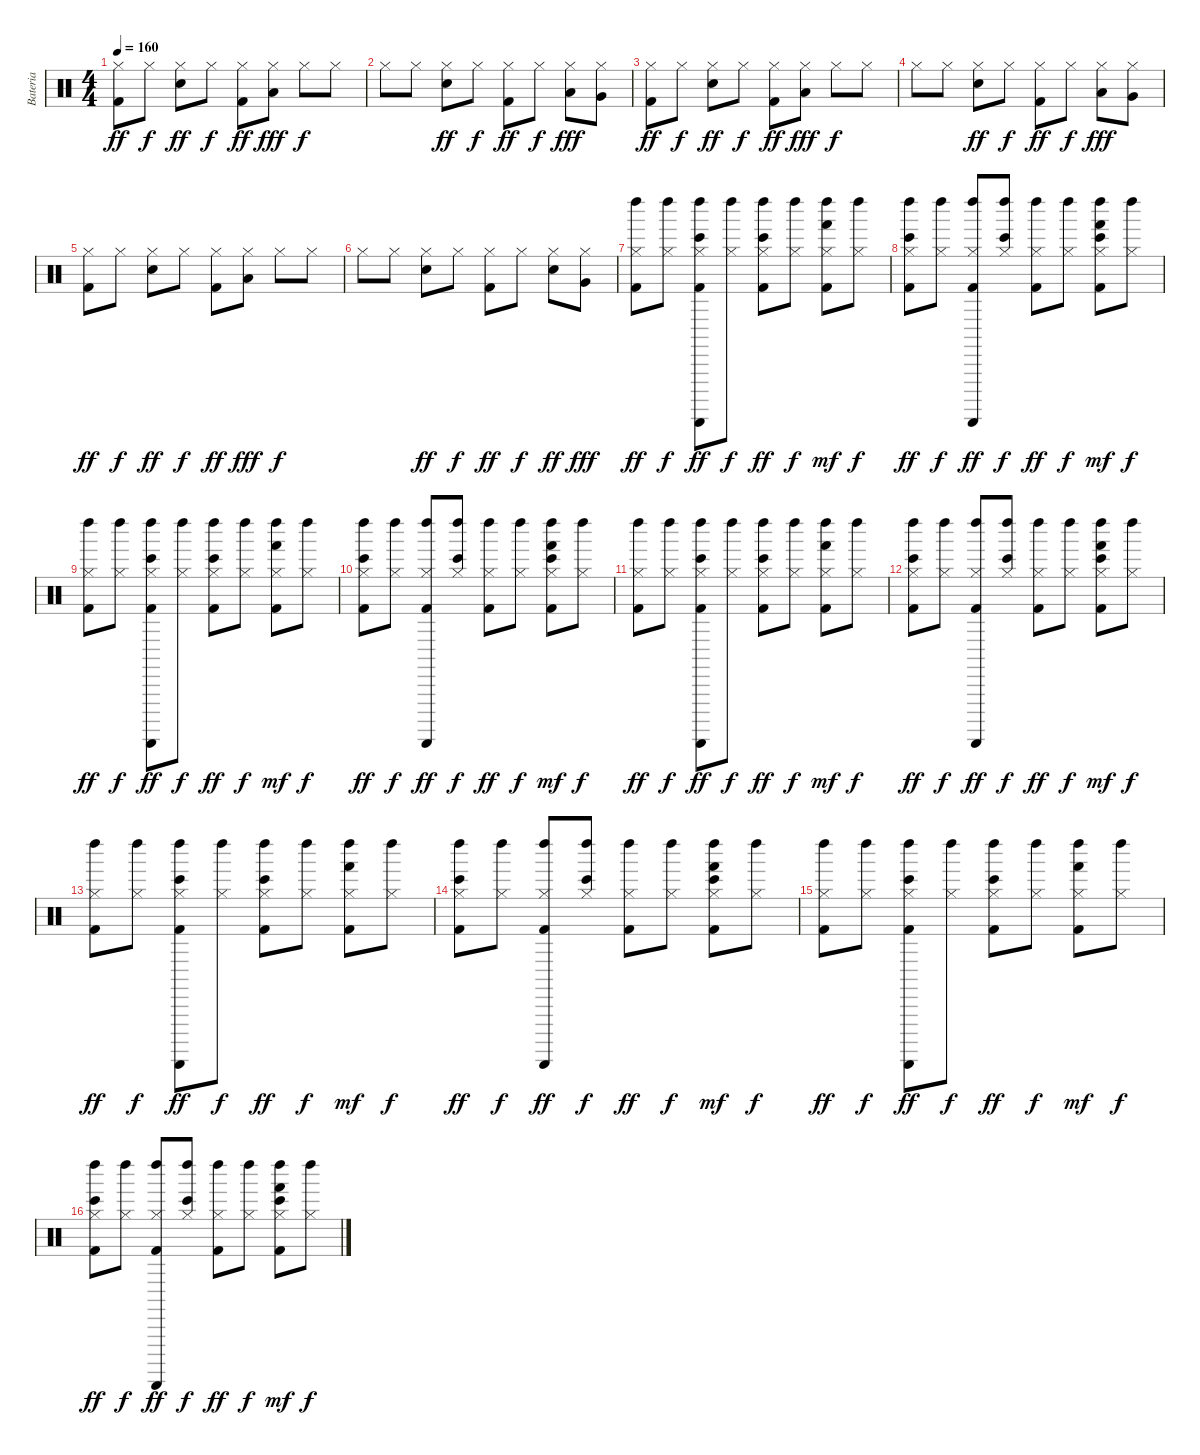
\track ("Bateria" "Bateria") {instrument percussion}
\staff {score}
\articulation defaults
\ts (4 4)
\tempo 160
\clef neutral
\ks c
("Hi-Hat (closed)" "Kick (hit) 2").8{dy ff} "Hi-Hat (closed)".8{dy f} ("Hi-Hat (closed)" "Snare (hit) 2").8{dy ff} "Hi-Hat (closed)".8{dy f} ("Kick (hit) 2" "Hi-Hat (closed)").8{dy ff} ("Low Tom (hit)" "Hi-Hat (closed)").8{dy fff} "Hi-Hat (closed)".8{dy f} "Hi-Hat (closed)".8 |
"Hi-Hat (closed)".8 "Hi-Hat (closed)".8 ("Hi-Hat (closed)" "Snare (hit) 2").8{dy ff} "Hi-Hat (closed)".8{dy f} ("Kick (hit) 2" "Hi-Hat (closed)").8{dy ff} "Hi-Hat (closed)".8{dy f} ("Hi-Hat (closed)" "Low Tom (hit)").8{dy fff} ("Very Low Tom (hit)" "Hi-Hat (closed)").8 |
("Hi-Hat (closed)" "Kick (hit) 2").8{dy ff} "Hi-Hat (closed)".8{dy f} ("Hi-Hat (closed)" "Snare (hit) 2").8{dy ff} "Hi-Hat (closed)".8{dy f} ("Kick (hit) 2" "Hi-Hat (closed)").8{dy ff} ("Low Tom (hit)" "Hi-Hat (closed)").8{dy fff} "Hi-Hat (closed)".8{dy f} "Hi-Hat (closed)".8 |
"Hi-Hat (closed)".8 "Hi-Hat (closed)".8 ("Hi-Hat (closed)" "Snare (hit) 2").8{dy ff} "Hi-Hat (closed)".8{dy f} ("Kick (hit) 2" "Hi-Hat (closed)").8{dy ff} "Hi-Hat (closed)".8{dy f} ("Hi-Hat (closed)" "Low Tom (hit)").8{dy fff} ("Very Low Tom (hit)" "Hi-Hat (closed)").8 |
("Hi-Hat (closed)" "Kick (hit) 2").8{dy ff} "Hi-Hat (closed)".8{dy f} ("Hi-Hat (closed)" "Snare (hit) 2").8{dy ff} "Hi-Hat (closed)".8{dy f} ("Kick (hit) 2" "Hi-Hat (closed)").8{dy ff} ("Low Tom (hit)" "Hi-Hat (closed)").8{dy fff} "Hi-Hat (closed)".8{dy f} "Hi-Hat (closed)".8 |
"Hi-Hat (closed)".8 "Hi-Hat (closed)".8 ("Hi-Hat (closed)" "Snare (hit) 2").8{dy ff} "Hi-Hat (closed)".8{dy f} ("Kick (hit) 2" "Hi-Hat (closed)").8{dy ff} "Hi-Hat (closed)".8{dy f} ("Snare (hit) 2" "Hi-Hat (closed)").8{dy ff} ("Very Low Tom (hit)" "Hi-Hat (closed)").8{dy fff} |
("Left Maraca (hit)" "Hi-Hat (closed)" "Kick (hit) 2").8{dy ff} ("Left Maraca (hit)" "Hi-Hat (closed)").8{dy f} ("Left Maraca (hit)" "Guiro (scrap-return)" "Hi-Hat (closed)" "Kick (hit) 2" "Bongo High (hit)").8{dy ff} ("Left Maraca (hit)" "Hi-Hat (closed)").8{dy f} ("Left Maraca (hit)" "Hi-Hat (closed)" "Kick (hit) 2" "Bongo High (hit)").8{dy ff} ("Left Maraca (hit)" "Hi-Hat (closed)").8{dy f} ("Left Maraca (hit)" "Hi-Hat (closed)" "Kick (hit) 2" "Hand (hit)").8{dy mf} ("Left Maraca (hit)" "Hi-Hat (closed)").8{dy f} |
("Left Maraca (hit)" "Hi-Hat (closed)" "Kick (hit) 2" "Bongo High (hit)").8{dy ff} ("Left Maraca (hit)" "Hi-Hat (closed)").8{dy f} ("Left Maraca (hit)" "Guiro (scrap-return)" "Kick (hit) 2" "Hi-Hat (closed)").8{dy ff} ("Left Maraca (hit)" "Hi-Hat (closed)" "Bongo High (hit)").8{dy f} ("Left Maraca (hit)" "Kick (hit) 2" "Hi-Hat (closed)").8{dy ff} ("Left Maraca (hit)" "Hi-Hat (closed)").8{dy f} ("Left Maraca (hit)" "Bongo High (hit)" "Hi-Hat (closed)" "Kick (hit) 2" "Hand (hit)").8{dy mf} ("Left Maraca (hit)" "Hi-Hat (closed)").8{dy f} |
("Left Maraca (hit)" "Kick (hit) 2" "Hi-Hat (closed)").8{dy ff} ("Left Maraca (hit)" "Hi-Hat (closed)").8{dy f} ("Left Maraca (hit)" "Guiro (scrap-return)" "Hi-Hat (closed)" "Kick (hit) 2" "Bongo High (hit)").8{dy ff} ("Left Maraca (hit)" "Hi-Hat (closed)").8{dy f} ("Left Maraca (hit)" "Hi-Hat (closed)" "Kick (hit) 2" "Bongo High (hit)").8{dy ff} ("Left Maraca (hit)" "Hi-Hat (closed)").8{dy f} ("Left Maraca (hit)" "Hi-Hat (closed)" "Kick (hit) 2" "Hand (hit)").8{dy mf} ("Left Maraca (hit)" "Hi-Hat (closed)").8{dy f} |
("Left Maraca (hit)" "Hi-Hat (closed)" "Kick (hit) 2" "Bongo High (hit)").8{dy ff} ("Left Maraca (hit)" "Hi-Hat (closed)").8{dy f} ("Left Maraca (hit)" "Guiro (scrap-return)" "Kick (hit) 2" "Hi-Hat (closed)").8{dy ff} ("Left Maraca (hit)" "Hi-Hat (closed)" "Bongo High (hit)").8{dy f} ("Left Maraca (hit)" "Kick (hit) 2" "Hi-Hat (closed)").8{dy ff} ("Left Maraca (hit)" "Hi-Hat (closed)").8{dy f} ("Left Maraca (hit)" "Bongo High (hit)" "Hi-Hat (closed)" "Kick (hit) 2" "Hand (hit)").8{dy mf} ("Left Maraca (hit)" "Hi-Hat (closed)").8{dy f} |
("Left Maraca (hit)" "Kick (hit) 2" "Hi-Hat (closed)").8{dy ff} ("Left Maraca (hit)" "Hi-Hat (closed)").8{dy f} ("Left Maraca (hit)" "Guiro (scrap-return)" "Hi-Hat (closed)" "Kick (hit) 2" "Bongo High (hit)").8{dy ff} ("Left Maraca (hit)" "Hi-Hat (closed)").8{dy f} ("Left Maraca (hit)" "Hi-Hat (closed)" "Kick (hit) 2" "Bongo High (hit)").8{dy ff} ("Left Maraca (hit)" "Hi-Hat (closed)").8{dy f} ("Left Maraca (hit)" "Hi-Hat (closed)" "Kick (hit) 2" "Hand (hit)").8{dy mf} ("Left Maraca (hit)" "Hi-Hat (closed)").8{dy f} |
("Left Maraca (hit)" "Hi-Hat (closed)" "Kick (hit) 2" "Bongo High (hit)").8{dy ff} ("Left Maraca (hit)" "Hi-Hat (closed)").8{dy f} ("Left Maraca (hit)" "Guiro (scrap-return)" "Kick (hit) 2" "Hi-Hat (closed)").8{dy ff} ("Left Maraca (hit)" "Hi-Hat (closed)" "Bongo High (hit)").8{dy f} ("Left Maraca (hit)" "Kick (hit) 2" "Hi-Hat (closed)").8{dy ff} ("Left Maraca (hit)" "Hi-Hat (closed)").8{dy f} ("Left Maraca (hit)" "Bongo High (hit)" "Hi-Hat (closed)" "Kick (hit) 2" "Hand (hit)").8{dy mf} ("Left Maraca (hit)" "Hi-Hat (closed)").8{dy f} |
("Left Maraca (hit)" "Kick (hit) 2" "Hi-Hat (closed)").8{dy ff} ("Left Maraca (hit)" "Hi-Hat (closed)").8{dy f} ("Left Maraca (hit)" "Guiro (scrap-return)" "Hi-Hat (closed)" "Kick (hit) 2" "Bongo High (hit)").8{dy ff} ("Left Maraca (hit)" "Hi-Hat (closed)").8{dy f} ("Left Maraca (hit)" "Hi-Hat (closed)" "Kick (hit) 2" "Bongo High (hit)").8{dy ff} ("Left Maraca (hit)" "Hi-Hat (closed)").8{dy f} ("Left Maraca (hit)" "Hi-Hat (closed)" "Kick (hit) 2" "Hand (hit)").8{dy mf} ("Left Maraca (hit)" "Hi-Hat (closed)").8{dy f} |
("Left Maraca (hit)" "Hi-Hat (closed)" "Kick (hit) 2" "Bongo High (hit)").8{dy ff} ("Left Maraca (hit)" "Hi-Hat (closed)").8{dy f} ("Left Maraca (hit)" "Guiro (scrap-return)" "Kick (hit) 2" "Hi-Hat (closed)").8{dy ff} ("Left Maraca (hit)" "Hi-Hat (closed)" "Bongo High (hit)").8{dy f} ("Left Maraca (hit)" "Kick (hit) 2" "Hi-Hat (closed)").8{dy ff} ("Left Maraca (hit)" "Hi-Hat (closed)").8{dy f} ("Left Maraca (hit)" "Bongo High (hit)" "Hi-Hat (closed)" "Kick (hit) 2" "Hand (hit)").8{dy mf} ("Left Maraca (hit)" "Hi-Hat (closed)").8{dy f} |
("Left Maraca (hit)" "Kick (hit) 2" "Hi-Hat (closed)").8{dy ff} ("Left Maraca (hit)" "Hi-Hat (closed)").8{dy f} ("Left Maraca (hit)" "Guiro (scrap-return)" "Hi-Hat (closed)" "Kick (hit) 2" "Bongo High (hit)").8{dy ff} ("Left Maraca (hit)" "Hi-Hat (closed)").8{dy f} ("Left Maraca (hit)" "Hi-Hat (closed)" "Kick (hit) 2" "Bongo High (hit)").8{dy ff} ("Left Maraca (hit)" "Hi-Hat (closed)").8{dy f} ("Left Maraca (hit)" "Hi-Hat (closed)" "Kick (hit) 2" "Hand (hit)").8{dy mf} ("Left Maraca (hit)" "Hi-Hat (closed)").8{dy f} |
("Left Maraca (hit)" "Hi-Hat (closed)" "Kick (hit) 2" "Bongo High (hit)").8{dy ff} ("Left Maraca (hit)" "Hi-Hat (closed)").8{dy f} ("Left Maraca (hit)" "Guiro (scrap-return)" "Kick (hit) 2" "Hi-Hat (closed)").8{dy ff} ("Left Maraca (hit)" "Hi-Hat (closed)" "Bongo High (hit)").8{dy f} ("Left Maraca (hit)" "Kick (hit) 2" "Hi-Hat (closed)").8{dy ff} ("Left Maraca (hit)" "Hi-Hat (closed)").8{dy f} ("Left Maraca (hit)" "Bongo High (hit)" "Hi-Hat (closed)" "Kick (hit) 2" "Hand (hit)").8{dy mf} ("Left Maraca (hit)" "Hi-Hat (closed)").8{dy f}
